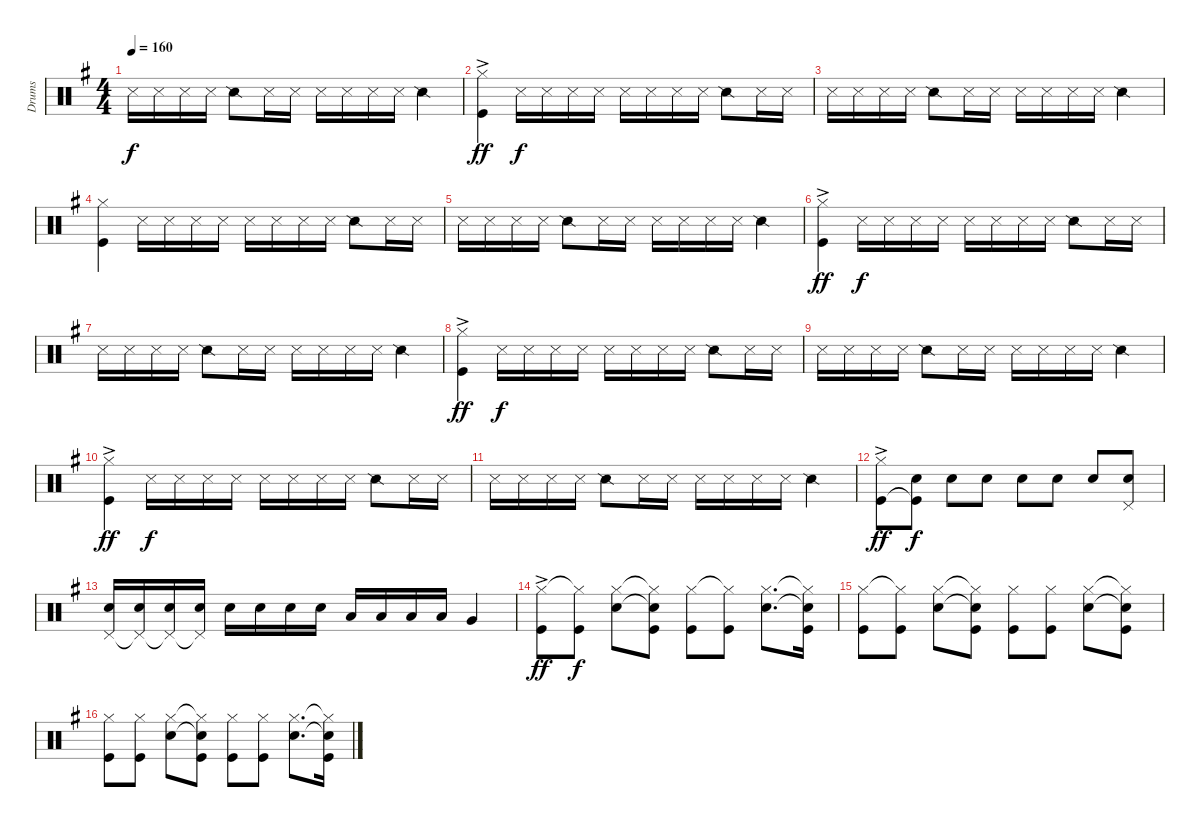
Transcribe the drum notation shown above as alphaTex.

\track ("Drums" "Drums") {instrument percussion}
\staff {score}
\articulation defaults
\ts (4 4)
\tempo 160
\clef neutral
\ks g "Snare (side stick) 3".16{dy f} "Snare (side stick) 3".16 "Snare (side stick) 3".16 "Snare (side stick) 3".16 "Snare (side stick) 2".8 "Snare (side stick) 3".16 "Snare (side stick) 3".16 "Snare (side stick) 3".16 "Snare (side stick) 3".16 "Snare (side stick) 3".16 "Snare (side stick) 3".16 "Snare (side stick) 2".4
|
("Hi-Hat (closed)"{ac} "Kick (hit)").4{dy ff} "Snare (side stick) 3".16{dy f} "Snare (side stick) 3".16 "Snare (side stick) 3".16 "Snare (side stick) 3".16 "Snare (side stick) 3".16 "Snare (side stick) 3".16 "Snare (side stick) 3".16 "Snare (side stick) 3".16 "Snare (side stick) 2".8 "Snare (side stick) 3".16 "Snare (side stick) 3".16 |
"Snare (side stick) 3".16 "Snare (side stick) 3".16 "Snare (side stick) 3".16 "Snare (side stick) 3".16 "Snare (side stick) 2".8 "Snare (side stick) 3".16 "Snare (side stick) 3".16 "Snare (side stick) 3".16 "Snare (side stick) 3".16 "Snare (side stick) 3".16 "Snare (side stick) 3".16 "Snare (side stick) 2".4 |
("Hi-Hat (closed)" "Kick (hit)").4 "Snare (side stick) 3".16 "Snare (side stick) 3".16 "Snare (side stick) 3".16 "Snare (side stick) 3".16 "Snare (side stick) 3".16 "Snare (side stick) 3".16 "Snare (side stick) 3".16 "Snare (side stick) 3".16 "Snare (side stick) 2".8 "Snare (side stick) 3".16 "Snare (side stick) 3".16 |
"Snare (side stick) 3".16 "Snare (side stick) 3".16 "Snare (side stick) 3".16 "Snare (side stick) 3".16 "Snare (side stick) 2".8 "Snare (side stick) 3".16 "Snare (side stick) 3".16 "Snare (side stick) 3".16 "Snare (side stick) 3".16 "Snare (side stick) 3".16 "Snare (side stick) 3".16 "Snare (side stick) 2".4 |
("Hi-Hat (closed)"{ac} "Kick (hit)").4{dy ff} "Snare (side stick) 3".16{dy f} "Snare (side stick) 3".16 "Snare (side stick) 3".16 "Snare (side stick) 3".16 "Snare (side stick) 3".16 "Snare (side stick) 3".16 "Snare (side stick) 3".16 "Snare (side stick) 3".16 "Snare (side stick) 2".8 "Snare (side stick) 3".16 "Snare (side stick) 3".16 |
"Snare (side stick) 3".16 "Snare (side stick) 3".16 "Snare (side stick) 3".16 "Snare (side stick) 3".16 "Snare (side stick) 2".8 "Snare (side stick) 3".16 "Snare (side stick) 3".16 "Snare (side stick) 3".16 "Snare (side stick) 3".16 "Snare (side stick) 3".16 "Snare (side stick) 3".16 "Snare (side stick) 2".4 |
("Hi-Hat (closed)"{ac} "Kick (hit)").4{dy ff} "Snare (side stick) 3".16{dy f} "Snare (side stick) 3".16 "Snare (side stick) 3".16 "Snare (side stick) 3".16 "Snare (side stick) 3".16 "Snare (side stick) 3".16 "Snare (side stick) 3".16 "Snare (side stick) 3".16 "Snare (side stick) 2".8 "Snare (side stick) 3".16 "Snare (side stick) 3".16 |
"Snare (side stick) 3".16 "Snare (side stick) 3".16 "Snare (side stick) 3".16 "Snare (side stick) 3".16 "Snare (side stick) 2".8 "Snare (side stick) 3".16 "Snare (side stick) 3".16 "Snare (side stick) 3".16 "Snare (side stick) 3".16 "Snare (side stick) 3".16 "Snare (side stick) 3".16 "Snare (side stick) 2".4 |
("Hi-Hat (closed)"{ac} "Kick (hit)").4{dy ff} "Snare (side stick) 3".16{dy f} "Snare (side stick) 3".16 "Snare (side stick) 3".16 "Snare (side stick) 3".16 "Snare (side stick) 3".16 "Snare (side stick) 3".16 "Snare (side stick) 3".16 "Snare (side stick) 3".16 "Snare (side stick) 2".8 "Snare (side stick) 3".16 "Snare (side stick) 3".16 |
"Snare (side stick) 3".16 "Snare (side stick) 3".16 "Snare (side stick) 3".16 "Snare (side stick) 3".16 "Snare (side stick) 2".8 "Snare (side stick) 3".16 "Snare (side stick) 3".16 "Snare (side stick) 3".16 "Snare (side stick) 3".16 "Snare (side stick) 3".16 "Snare (side stick) 3".16 "Snare (side stick) 2".4 |
("Hi-Hat (closed)"{ac} "Kick (hit)").8{dy ff} ("Snare (hit) 2" "Kick (hit)"{t}).8{dy f} "Snare (hit) 2".8 "Snare (hit) 2".8 "Snare (hit) 2".8 "Snare (hit) 2".8 "Snare (hit) 2".8 ("Snare (hit) 2" "Pedal Hi-Hat (hit)").8 |
("Snare (hit) 2" "Pedal Hi-Hat (hit)").16 ("Snare (hit) 2" "Pedal Hi-Hat (hit)"{t}).16 ("Snare (hit) 2" "Pedal Hi-Hat (hit)"{t}).16 ("Snare (hit) 2" "Pedal Hi-Hat (hit)"{t}).16 "Snare (hit) 2".16 "Snare (hit) 2".16 "Snare (hit) 2".16 "Snare (hit) 2".16 "Low Tom (hit)".16 "Low Tom (hit)".16 "Low Tom (hit)".16 "Low Tom (hit)".16 "Very Low Tom (hit)".4 |
("Hi-Hat (closed)"{ac} "Kick (hit)").8{dy ff} ("Hi-Hat (closed)"{t} "Kick (hit)").8{dy f} ("Hi-Hat (closed)" "Snare (hit) 2").8 ("Hi-Hat (closed)"{t} "Snare (hit) 2"{t} "Kick (hit)").8 ("Hi-Hat (closed)" "Kick (hit)").8 ("Hi-Hat (closed)"{t} "Kick (hit)").8 ("Hi-Hat (closed)" "Snare (hit) 2").8{d} ("Hi-Hat (closed)"{t} "Snare (hit) 2"{t} "Kick (hit)").16 |
("Hi-Hat (closed)" "Kick (hit)").8 ("Hi-Hat (closed)"{t} "Kick (hit)").8 ("Hi-Hat (closed)" "Snare (hit) 2").8 ("Hi-Hat (closed)"{t} "Snare (hit) 2"{t} "Kick (hit)").8 ("Hi-Hat (closed)" "Kick (hit)").8 ("Hi-Hat (closed)" "Kick (hit)").8 ("Hi-Hat (closed)" "Snare (hit) 2").8 ("Hi-Hat (closed)"{t} "Snare (hit) 2"{t} "Kick (hit)").8 |
("Hi-Hat (closed)" "Kick (hit)").8 ("Hi-Hat (closed)" "Kick (hit)").8 ("Hi-Hat (closed)" "Snare (hit) 2").8 ("Hi-Hat (closed)"{t} "Snare (hit) 2"{t} "Kick (hit)").8 ("Hi-Hat (closed)" "Kick (hit)").8 ("Hi-Hat (closed)" "Kick (hit)").8 ("Hi-Hat (closed)" "Snare (hit) 2").8{d} ("Hi-Hat (closed)"{t} "Snare (hit) 2"{t} "Kick (hit)").16
